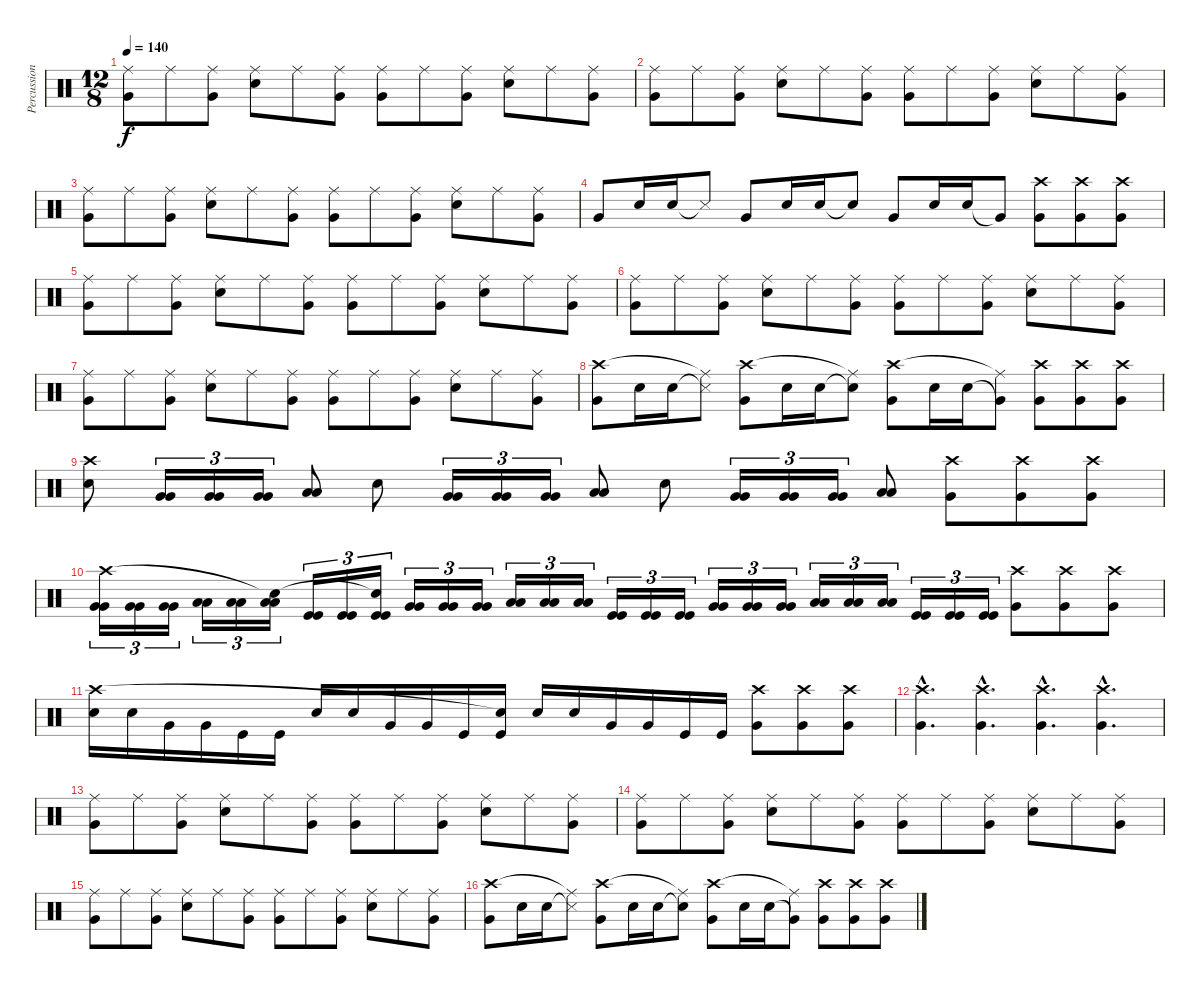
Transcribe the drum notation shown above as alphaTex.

\track ("Percussion" "Percussion") {instrument percussion}
\staff {score}
\articulation defaults
\ts (12 8)
\tempo 140
\clef neutral
\ks c
("Very Low Tom (hit)" "Ride (middle)").8{dy f} "Ride (middle)".8 ("Very Low Tom (hit)" "Ride (middle)").8 ("Snare (hit) 2" "Ride (middle)").8 "Ride (middle)".8 ("Very Low Tom (hit)" "Ride (middle)").8 ("Very Low Tom (hit)" "Ride (middle)").8 "Ride (middle)".8 ("Very Low Tom (hit)" "Ride (middle)").8 ("Snare (hit) 2" "Ride (middle)").8 "Ride (middle)".8 ("Very Low Tom (hit)" "Ride (middle)").8 |
("Very Low Tom (hit)" "Ride (middle)").8 "Ride (middle)".8 ("Very Low Tom (hit)" "Ride (middle)").8 ("Snare (hit) 2" "Ride (middle)").8 "Ride (middle)".8 ("Very Low Tom (hit)" "Ride (middle)").8 ("Very Low Tom (hit)" "Ride (middle)").8 "Ride (middle)".8 ("Very Low Tom (hit)" "Ride (middle)").8 ("Snare (hit) 2" "Ride (middle)").8 "Ride (middle)".8 ("Very Low Tom (hit)" "Ride (middle)").8 |
("Very Low Tom (hit)" "Ride (middle)").8 "Ride (middle)".8 ("Very Low Tom (hit)" "Ride (middle)").8 ("Snare (hit) 2" "Ride (middle)").8 "Ride (middle)".8 ("Very Low Tom (hit)" "Ride (middle)").8 ("Very Low Tom (hit)" "Ride (middle)").8 "Ride (middle)".8 ("Very Low Tom (hit)" "Ride (middle)").8 ("Snare (hit) 2" "Ride (middle)").8 "Ride (middle)".8 ("Very Low Tom (hit)" "Ride (middle)").8 |
"Very Low Tom (hit)".8 "Snare (hit) 2".16 "Snare (hit) 2".16 "Snare (side stick) 3"{t}.8 "Very Low Tom (hit)".8 "Snare (hit) 2".16 "Snare (hit) 2".16 "Snare (hit)"{t}.8 "Very Low Tom (hit)".8 "Snare (hit) 2".16 "Snare (hit) 2".16 "Very Low Tom (hit)"{t}.8 ("Very Low Tom (hit)" "Crash high (hit)").8 ("Very Low Tom (hit)" "Crash high (hit)").8 ("Very Low Tom (hit)" "Crash high (hit)").8 |
("Very Low Tom (hit)" "Ride (middle)").8 "Ride (middle)".8 ("Very Low Tom (hit)" "Ride (middle)").8 ("Snare (hit) 2" "Ride (middle)").8 "Ride (middle)".8 ("Very Low Tom (hit)" "Ride (middle)").8 ("Very Low Tom (hit)" "Ride (middle)").8 "Ride (middle)".8 ("Very Low Tom (hit)" "Ride (middle)").8 ("Snare (hit) 2" "Ride (middle)").8 "Ride (middle)".8 ("Very Low Tom (hit)" "Ride (middle)").8 |
("Very Low Tom (hit)" "Ride (middle)").8 "Ride (middle)".8 ("Very Low Tom (hit)" "Ride (middle)").8 ("Snare (hit) 2" "Ride (middle)").8 "Ride (middle)".8 ("Very Low Tom (hit)" "Ride (middle)").8 ("Very Low Tom (hit)" "Ride (middle)").8 "Ride (middle)".8 ("Very Low Tom (hit)" "Ride (middle)").8 ("Snare (hit) 2" "Ride (middle)").8 "Ride (middle)".8 ("Very Low Tom (hit)" "Ride (middle)").8 |
("Very Low Tom (hit)" "Ride (middle)").8 "Ride (middle)".8 ("Very Low Tom (hit)" "Ride (middle)").8 ("Snare (hit) 2" "Ride (middle)").8 "Ride (middle)".8 ("Very Low Tom (hit)" "Ride (middle)").8 ("Very Low Tom (hit)" "Ride (middle)").8 "Ride (middle)".8 ("Very Low Tom (hit)" "Ride (middle)").8 ("Snare (hit) 2" "Ride (middle)").8 "Ride (middle)".8 ("Very Low Tom (hit)" "Ride (middle)").8 |
("Very Low Tom (hit)" "Crash high (hit)").8 "Snare (hit) 2".16 "Snare (hit) 2".16 ("Snare (side stick) 3"{t} "Ride (middle)"{t}).8 ("Very Low Tom (hit)" "Crash high (hit)").8 "Snare (hit) 2".16 "Snare (hit) 2".16 ("Snare (hit)"{t} "Ride (middle)"{t}).8 ("Very Low Tom (hit)" "Crash high (hit)").8 "Snare (hit) 2".16 "Snare (hit) 2".16 ("Very Low Tom (hit)"{t} "Ride (middle)"{t}).8 ("Very Low Tom (hit)" "Crash high (hit)").8 ("Very Low Tom (hit)" "Crash high (hit)").8 ("Very Low Tom (hit)" "Crash high (hit)").8 |
("Snare (hit) 2" "Crash high (hit)").8 ("Very Low Tom (hit)" "Very Low Tom (hit)").16{tu (3 2)} ("Very Low Tom (hit)" "Very Low Tom (hit)").16{tu (3 2)} ("Very Low Tom (hit)" "Very Low Tom (hit)").16{tu (3 2)} ("Low Floor Tom (hit)" "Low Floor Tom (hit)").8 "Snare (hit) 2".8 ("Very Low Tom (hit)" "Very Low Tom (hit)").16{tu (3 2)} ("Very Low Tom (hit)" "Very Low Tom (hit)").16{tu (3 2)} ("Very Low Tom (hit)" "Very Low Tom (hit)").16{tu (3 2)} ("Low Floor Tom (hit)" "Low Floor Tom (hit)").8 "Snare (hit) 2".8 ("Very Low Tom (hit)" "Very Low Tom (hit)").16{tu (3 2)} ("Very Low Tom (hit)" "Very Low Tom (hit)").16{tu (3 2)} ("Very Low Tom (hit)" "Very Low Tom (hit)").16{tu (3 2)} ("Low Floor Tom (hit)" "Low Floor Tom (hit)").8 ("Very Low Tom (hit)" "Crash high (hit)").8 ("Very Low Tom (hit)" "Crash high (hit)").8 ("Very Low Tom (hit)" "Crash high (hit)").8 |
("Very Low Tom (hit)" "Very Low Tom (hit)" "Crash high (hit)").16{tu (3 2)} ("Very Low Tom (hit)" "Very Low Tom (hit)").16{tu (3 2)} ("Very Low Tom (hit)" "Very Low Tom (hit)").16{tu (3 2)} ("Low Floor Tom (hit)" "Low Floor Tom (hit)").16{tu (3 2)} ("Low Floor Tom (hit)" "Low Floor Tom (hit)").16{tu (3 2)} ("Low Floor Tom (hit)" "Low Floor Tom (hit)" "Snare (hit)"{t}).16{tu (3 2)} ("Kick (hit)" "Kick (hit)").16{tu (3 2)} ("Kick (hit)" "Kick (hit)").16{tu (3 2)} ("Kick (hit)" "Kick (hit)" "Snare (hit)"{t}).16{tu (3 2)} ("Very Low Tom (hit)" "Very Low Tom (hit)").16{tu (3 2)} ("Very Low Tom (hit)" "Very Low Tom (hit)").16{tu (3 2)} ("Very Low Tom (hit)" "Very Low Tom (hit)").16{tu (3 2)} ("Low Floor Tom (hit)" "Low Floor Tom (hit)").16{tu (3 2)} ("Low Floor Tom (hit)" "Low Floor Tom (hit)").16{tu (3 2)} ("Low Floor Tom (hit)" "Low Floor Tom (hit)").16{tu (3 2)} ("Kick (hit)" "Kick (hit)").16{tu (3 2)} ("Kick (hit)" "Kick (hit)").16{tu (3 2)} ("Kick (hit)" "Kick (hit)").16{tu (3 2)} ("Very Low Tom (hit)" "Very Low Tom (hit)").16{tu (3 2)} ("Very Low Tom (hit)" "Very Low Tom (hit)").16{tu (3 2)} ("Very Low Tom (hit)" "Very Low Tom (hit)").16{tu (3 2)} ("Low Floor Tom (hit)" "Low Floor Tom (hit)").16{tu (3 2)} ("Low Floor Tom (hit)" "Low Floor Tom (hit)").16{tu (3 2)} ("Low Floor Tom (hit)" "Low Floor Tom (hit)").16{tu (3 2)} ("Kick (hit)" "Kick (hit)").16{tu (3 2)} ("Kick (hit)" "Kick (hit)").16{tu (3 2)} ("Kick (hit)" "Kick (hit)").16{tu (3 2)} ("Very Low Tom (hit)" "Crash high (hit)").8 ("Very Low Tom (hit)" "Crash high (hit)").8 ("Very Low Tom (hit)" "Crash high (hit)").8 |
("Snare (hit) 2" "Crash high (hit)").16 "Snare (hit) 2".16 "Very Low Tom (hit)".16 "Very Low Tom (hit)".16 "Kick (hit)".16 "Kick (hit)".16 "Snare (hit) 2".16 "Snare (hit) 2".16 "Very Low Tom (hit)".16 "Very Low Tom (hit)".16 "Kick (hit)".16 ("Kick (hit)" "Snare (hit)"{t}).16 "Snare (hit) 2".16 "Snare (hit) 2".16 "Very Low Tom (hit)".16 "Very Low Tom (hit)".16 "Kick (hit)".16 "Kick (hit)".16 ("Very Low Tom (hit)" "Crash high (hit)").8 ("Very Low Tom (hit)" "Crash high (hit)").8 ("Very Low Tom (hit)" "Crash high (hit)").8 |
("Very Low Tom (hit)"{hac} "Crash high (hit)"{hac}).4{d} ("Very Low Tom (hit)"{hac} "Crash high (hit)"{hac}).4{d} ("Very Low Tom (hit)"{hac} "Crash high (hit)"{hac}).4{d} ("Very Low Tom (hit)"{hac} "Crash high (hit)"{hac}).4{d} |
("Very Low Tom (hit)" "Ride (middle)").8 "Ride (middle)".8 ("Very Low Tom (hit)" "Ride (middle)").8 ("Snare (hit) 2" "Ride (middle)").8 "Ride (middle)".8 ("Very Low Tom (hit)" "Ride (middle)").8 ("Very Low Tom (hit)" "Ride (middle)").8 "Ride (middle)".8 ("Very Low Tom (hit)" "Ride (middle)").8 ("Snare (hit) 2" "Ride (middle)").8 "Ride (middle)".8 ("Very Low Tom (hit)" "Ride (middle)").8 |
("Very Low Tom (hit)" "Ride (middle)").8 "Ride (middle)".8 ("Very Low Tom (hit)" "Ride (middle)").8 ("Snare (hit) 2" "Ride (middle)").8 "Ride (middle)".8 ("Very Low Tom (hit)" "Ride (middle)").8 ("Very Low Tom (hit)" "Ride (middle)").8 "Ride (middle)".8 ("Very Low Tom (hit)" "Ride (middle)").8 ("Snare (hit) 2" "Ride (middle)").8 "Ride (middle)".8 ("Very Low Tom (hit)" "Ride (middle)").8 |
("Very Low Tom (hit)" "Ride (middle)").8 "Ride (middle)".8 ("Very Low Tom (hit)" "Ride (middle)").8 ("Snare (hit) 2" "Ride (middle)").8 "Ride (middle)".8 ("Very Low Tom (hit)" "Ride (middle)").8 ("Very Low Tom (hit)" "Ride (middle)").8 "Ride (middle)".8 ("Very Low Tom (hit)" "Ride (middle)").8 ("Snare (hit) 2" "Ride (middle)").8 "Ride (middle)".8 ("Very Low Tom (hit)" "Ride (middle)").8 |
("Very Low Tom (hit)" "Crash high (hit)").8 "Snare (hit) 2".16 "Snare (hit) 2".16 ("Snare (side stick) 3"{t} "Ride (middle)"{t}).8 ("Very Low Tom (hit)" "Crash high (hit)").8 "Snare (hit) 2".16 "Snare (hit) 2".16 ("Snare (hit)"{t} "Ride (middle)"{t}).8 ("Very Low Tom (hit)" "Crash high (hit)").8 "Snare (hit) 2".16 "Snare (hit) 2".16 ("Very Low Tom (hit)"{t} "Ride (middle)"{t}).8 ("Very Low Tom (hit)" "Crash high (hit)").8 ("Very Low Tom (hit)" "Crash high (hit)").8 ("Very Low Tom (hit)" "Crash high (hit)").8
